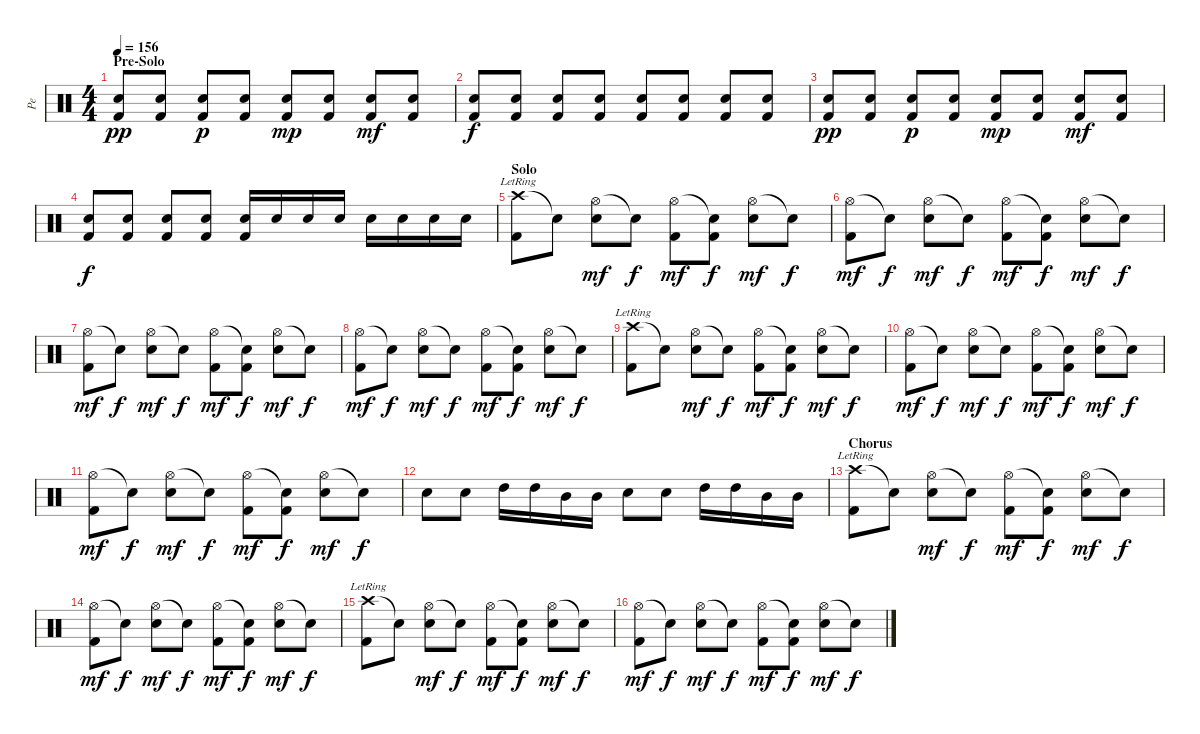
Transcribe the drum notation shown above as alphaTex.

\track ("Pe" "Pe") {instrument percussion}
\staff {score}
\articulation defaults
\ts (4 4)
\section ("" "Pre-Solo")
\tempo 156
\clef neutral
\ks c
("Electric Snare (hit)" "Kick (hit) 2").8{dy pp} ("Electric Snare (hit)" "Kick (hit) 2").8 ("Electric Snare (hit)" "Kick (hit) 2").8{dy p} ("Electric Snare (hit)" "Kick (hit) 2").8 ("Electric Snare (hit)" "Kick (hit) 2").8{dy mp} ("Electric Snare (hit)" "Kick (hit) 2").8 ("Electric Snare (hit)" "Kick (hit) 2").8{dy mf} ("Electric Snare (hit)" "Kick (hit) 2").8 |
("Electric Snare (hit)" "Kick (hit) 2").8{dy f} ("Electric Snare (hit)" "Kick (hit) 2").8 ("Electric Snare (hit)" "Kick (hit) 2").8 ("Electric Snare (hit)" "Kick (hit) 2").8 ("Electric Snare (hit)" "Kick (hit) 2").8 ("Electric Snare (hit)" "Kick (hit) 2").8 ("Electric Snare (hit)" "Kick (hit) 2").8 ("Electric Snare (hit)" "Kick (hit) 2").8 |
("Electric Snare (hit)" "Kick (hit) 2").8{dy pp} ("Electric Snare (hit)" "Kick (hit) 2").8 ("Electric Snare (hit)" "Kick (hit) 2").8{dy p} ("Electric Snare (hit)" "Kick (hit) 2").8 ("Electric Snare (hit)" "Kick (hit) 2").8{dy mp} ("Electric Snare (hit)" "Kick (hit) 2").8 ("Electric Snare (hit)" "Kick (hit) 2").8{dy mf} ("Electric Snare (hit)" "Kick (hit) 2").8 |
("Electric Snare (hit)" "Kick (hit) 2").8{dy f} ("Electric Snare (hit)" "Kick (hit) 2").8 ("Electric Snare (hit)" "Kick (hit) 2").8 ("Electric Snare (hit)" "Kick (hit) 2").8 ("Electric Snare (hit)" "Kick (hit) 2").16 "Electric Snare (hit)".16 "Electric Snare (hit)".16 "Electric Snare (hit)".16 "Electric Snare (hit)".16 "Electric Snare (hit)".16 "Electric Snare (hit)".16 "Electric Snare (hit)".16 |
\section ("" "Solo")
("Crash high (hit)"{lr} "Kick (hit) 2").8 "Snare (hit)"{t}.8 ("Hi-Hat (open)" "Electric Snare (hit)").8{dy mf} "Snare (hit)"{t}.8{dy f} ("Hi-Hat (open)" "Kick (hit) 2").8{dy mf} ("Snare (hit)"{t} "Kick (hit) 2").8{dy f} ("Hi-Hat (open)" "Electric Snare (hit)").8{dy mf} "Snare (hit)"{t}.8{dy f} |
("Hi-Hat (open)" "Kick (hit) 2").8{dy mf} "Snare (hit)"{t}.8{dy f} ("Hi-Hat (open)" "Electric Snare (hit)").8{dy mf} "Snare (hit)"{t}.8{dy f} ("Hi-Hat (open)" "Kick (hit) 2").8{dy mf} ("Snare (hit)"{t} "Kick (hit) 2").8{dy f} ("Hi-Hat (open)" "Electric Snare (hit)").8{dy mf} "Snare (hit)"{t}.8{dy f} |
("Hi-Hat (open)" "Kick (hit) 2").8{dy mf} "Snare (hit)"{t}.8{dy f} ("Hi-Hat (open)" "Electric Snare (hit)").8{dy mf} "Snare (hit)"{t}.8{dy f} ("Hi-Hat (open)" "Kick (hit) 2").8{dy mf} ("Snare (hit)"{t} "Kick (hit) 2").8{dy f} ("Hi-Hat (open)" "Electric Snare (hit)").8{dy mf} "Snare (hit)"{t}.8{dy f} |
("Hi-Hat (open)" "Kick (hit) 2").8{dy mf} "Snare (hit)"{t}.8{dy f} ("Hi-Hat (open)" "Electric Snare (hit)").8{dy mf} "Snare (hit)"{t}.8{dy f} ("Hi-Hat (open)" "Kick (hit) 2").8{dy mf} ("Snare (hit)"{t} "Kick (hit) 2").8{dy f} ("Hi-Hat (open)" "Electric Snare (hit)").8{dy mf} "Snare (hit)"{t}.8{dy f} |
("Crash high (hit)"{lr} "Kick (hit) 2").8 "Snare (hit)"{t}.8 ("Hi-Hat (open)" "Electric Snare (hit)").8{dy mf} "Snare (hit)"{t}.8{dy f} ("Hi-Hat (open)" "Kick (hit) 2").8{dy mf} ("Snare (hit)"{t} "Kick (hit) 2").8{dy f} ("Hi-Hat (open)" "Electric Snare (hit)").8{dy mf} "Snare (hit)"{t}.8{dy f} |
("Hi-Hat (open)" "Kick (hit) 2").8{dy mf} "Snare (hit)"{t}.8{dy f} ("Hi-Hat (open)" "Electric Snare (hit)").8{dy mf} "Snare (hit)"{t}.8{dy f} ("Hi-Hat (open)" "Kick (hit) 2").8{dy mf} ("Snare (hit)"{t} "Kick (hit) 2").8{dy f} ("Hi-Hat (open)" "Electric Snare (hit)").8{dy mf} "Snare (hit)"{t}.8{dy f} |
("Hi-Hat (open)" "Kick (hit) 2").8{dy mf} "Snare (hit)"{t}.8{dy f} ("Hi-Hat (open)" "Electric Snare (hit)").8{dy mf} "Snare (hit)"{t}.8{dy f} ("Hi-Hat (open)" "Kick (hit) 2").8{dy mf} ("Snare (hit)"{t} "Kick (hit) 2").8{dy f} ("Hi-Hat (open)" "Electric Snare (hit)").8{dy mf} "Snare (hit)"{t}.8{dy f} |
"Electric Snare (hit)".8 "Electric Snare (hit)".8 "High Tom (hit)".16 "High Tom (hit)".16 "Mid Tom (hit)".16 "Mid Tom (hit)".16 "Electric Snare (hit)".8 "Electric Snare (hit)".8 "High Tom (hit)".16 "High Tom (hit)".16 "Mid Tom (hit)".16 "Mid Tom (hit)".16 |
\section ("" "Chorus")
("Crash high (hit)"{lr} "Kick (hit) 2").8 "Snare (hit)"{t}.8 ("Hi-Hat (open)" "Electric Snare (hit)").8{dy mf} "Snare (hit)"{t}.8{dy f} ("Hi-Hat (open)" "Kick (hit) 2").8{dy mf} ("Snare (hit)"{t} "Kick (hit) 2").8{dy f} ("Hi-Hat (open)" "Electric Snare (hit)").8{dy mf} "Snare (hit)"{t}.8{dy f} |
("Hi-Hat (open)" "Kick (hit) 2").8{dy mf} "Snare (hit)"{t}.8{dy f} ("Hi-Hat (open)" "Electric Snare (hit)").8{dy mf} "Snare (hit)"{t}.8{dy f} ("Hi-Hat (open)" "Kick (hit) 2").8{dy mf} ("Snare (hit)"{t} "Kick (hit) 2").8{dy f} ("Hi-Hat (open)" "Electric Snare (hit)").8{dy mf} "Snare (hit)"{t}.8{dy f} |
("Crash high (hit)"{lr} "Kick (hit) 2").8 "Snare (hit)"{t}.8 ("Hi-Hat (open)" "Electric Snare (hit)").8{dy mf} "Snare (hit)"{t}.8{dy f} ("Hi-Hat (open)" "Kick (hit) 2").8{dy mf} ("Snare (hit)"{t} "Kick (hit) 2").8{dy f} ("Hi-Hat (open)" "Electric Snare (hit)").8{dy mf} "Snare (hit)"{t}.8{dy f} |
("Hi-Hat (open)" "Kick (hit) 2").8{dy mf} "Snare (hit)"{t}.8{dy f} ("Hi-Hat (open)" "Electric Snare (hit)").8{dy mf} "Snare (hit)"{t}.8{dy f} ("Hi-Hat (open)" "Kick (hit) 2").8{dy mf} ("Snare (hit)"{t} "Kick (hit) 2").8{dy f} ("Hi-Hat (open)" "Electric Snare (hit)").8{dy mf} "Snare (hit)"{t}.8{dy f}
